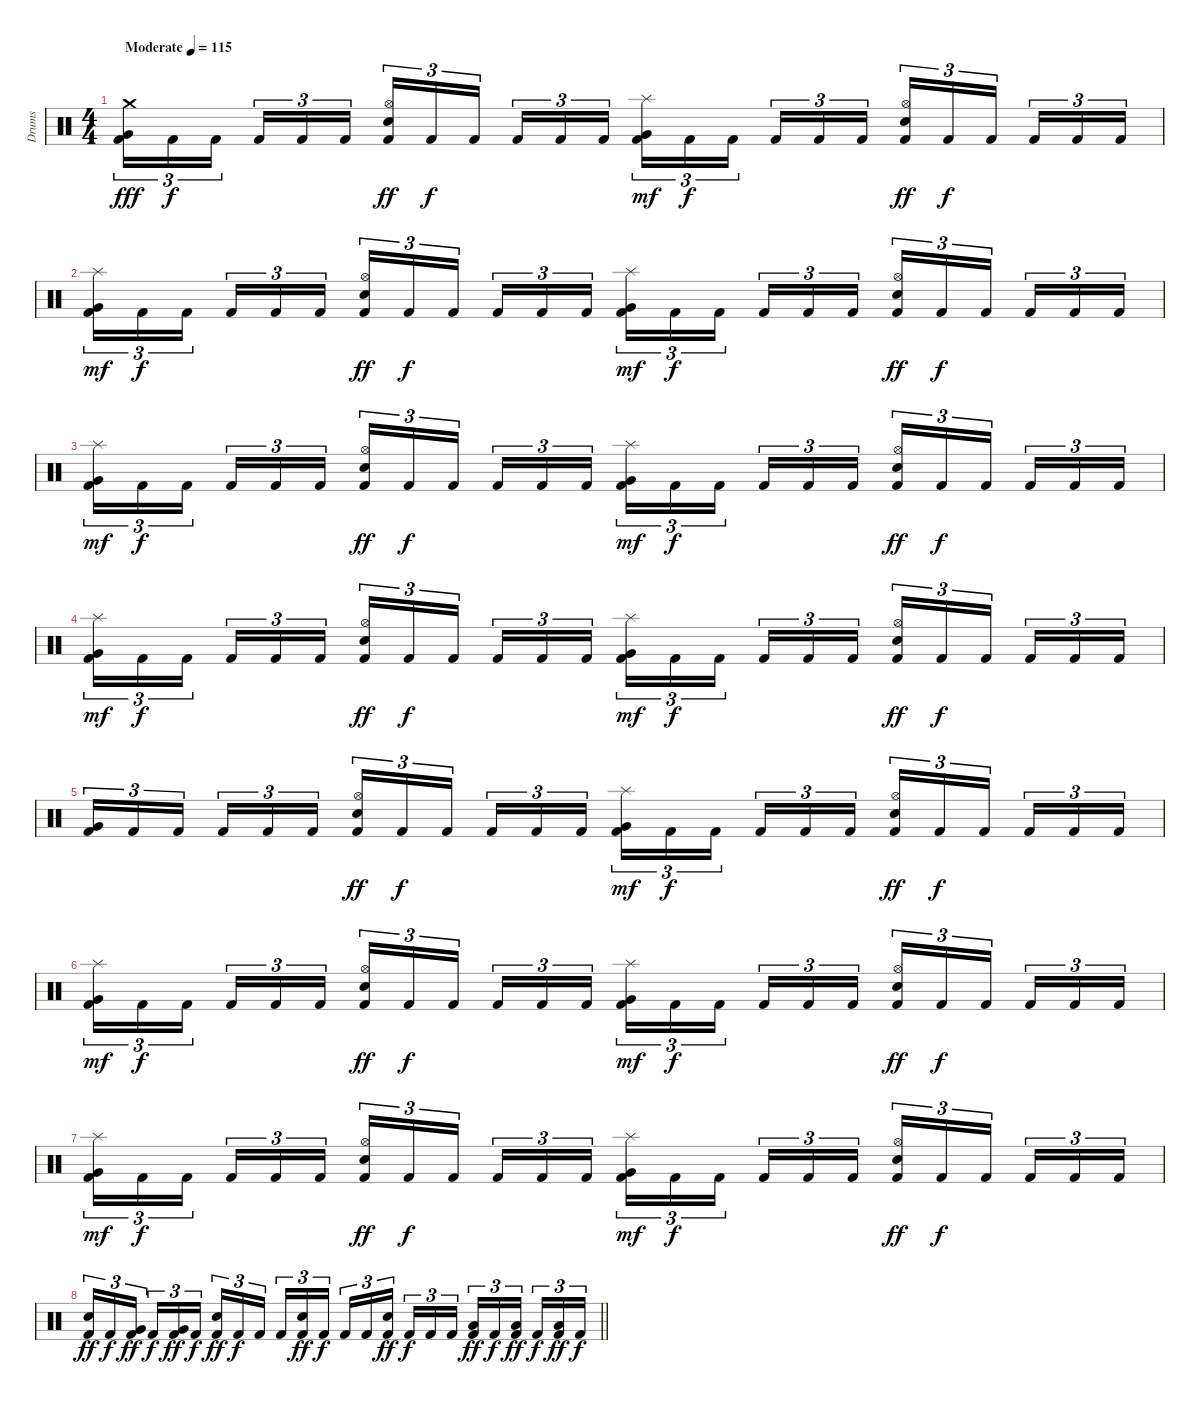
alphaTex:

\track ("Drums" "Drums") {instrument percussion}
\staff {score}
\articulation defaults
\ts (4 4)
\tempo (115 "Moderate")
\clef neutral
\ks c
("Crash medium (hit)" "Very Low Tom (hit)" "Kick (hit) 2").16{tu (3 2) dy fff} "Kick (hit) 2".16{tu (3 2) dy f} "Kick (hit) 2".16{tu (3 2) beam splitsecondary} "Kick (hit) 2".16{tu (3 2)} "Kick (hit) 2".16{tu (3 2)} "Kick (hit) 2".16{tu (3 2)} ("Hi-Hat (open)" "Snare (hit) 2" "Kick (hit) 2").16{tu (3 2) dy ff} "Kick (hit) 2".16{tu (3 2) dy f} "Kick (hit) 2".16{tu (3 2) beam splitsecondary} "Kick (hit) 2".16{tu (3 2)} "Kick (hit) 2".16{tu (3 2)} "Kick (hit) 2".16{tu (3 2)} ("Splash (hit)" "Very Low Tom (hit)" "Kick (hit) 2").16{tu (3 2) dy mf} "Kick (hit) 2".16{tu (3 2) dy f} "Kick (hit) 2".16{tu (3 2) beam splitsecondary} "Kick (hit) 2".16{tu (3 2)} "Kick (hit) 2".16{tu (3 2)} "Kick (hit) 2".16{tu (3 2)} ("Hi-Hat (open)" "Snare (hit) 2" "Kick (hit) 2").16{tu (3 2) dy ff} "Kick (hit) 2".16{tu (3 2) dy f} "Kick (hit) 2".16{tu (3 2) beam splitsecondary} "Kick (hit) 2".16{tu (3 2)} "Kick (hit) 2".16{tu (3 2)} "Kick (hit) 2".16{tu (3 2)} |
("Splash (hit)" "Very Low Tom (hit)" "Kick (hit) 2").16{tu (3 2) dy mf} "Kick (hit) 2".16{tu (3 2) dy f} "Kick (hit) 2".16{tu (3 2) beam splitsecondary} "Kick (hit) 2".16{tu (3 2)} "Kick (hit) 2".16{tu (3 2)} "Kick (hit) 2".16{tu (3 2)} ("Hi-Hat (open)" "Snare (hit) 2" "Kick (hit) 2").16{tu (3 2) dy ff} "Kick (hit) 2".16{tu (3 2) dy f} "Kick (hit) 2".16{tu (3 2) beam splitsecondary} "Kick (hit) 2".16{tu (3 2)} "Kick (hit) 2".16{tu (3 2)} "Kick (hit) 2".16{tu (3 2)} ("Splash (hit)" "Very Low Tom (hit)" "Kick (hit) 2").16{tu (3 2) dy mf} "Kick (hit) 2".16{tu (3 2) dy f} "Kick (hit) 2".16{tu (3 2) beam splitsecondary} "Kick (hit) 2".16{tu (3 2)} "Kick (hit) 2".16{tu (3 2)} "Kick (hit) 2".16{tu (3 2)} ("Hi-Hat (open)" "Snare (hit) 2" "Kick (hit) 2").16{tu (3 2) dy ff} "Kick (hit) 2".16{tu (3 2) dy f} "Kick (hit) 2".16{tu (3 2) beam splitsecondary} "Kick (hit) 2".16{tu (3 2)} "Kick (hit) 2".16{tu (3 2)} "Kick (hit) 2".16{tu (3 2)} |
("Splash (hit)" "Very Low Tom (hit)" "Kick (hit) 2").16{tu (3 2) dy mf} "Kick (hit) 2".16{tu (3 2) dy f} "Kick (hit) 2".16{tu (3 2) beam splitsecondary} "Kick (hit) 2".16{tu (3 2)} "Kick (hit) 2".16{tu (3 2)} "Kick (hit) 2".16{tu (3 2)} ("Hi-Hat (open)" "Snare (hit) 2" "Kick (hit) 2").16{tu (3 2) dy ff} "Kick (hit) 2".16{tu (3 2) dy f} "Kick (hit) 2".16{tu (3 2) beam splitsecondary} "Kick (hit) 2".16{tu (3 2)} "Kick (hit) 2".16{tu (3 2)} "Kick (hit) 2".16{tu (3 2)} ("Splash (hit)" "Very Low Tom (hit)" "Kick (hit) 2").16{tu (3 2) dy mf} "Kick (hit) 2".16{tu (3 2) dy f} "Kick (hit) 2".16{tu (3 2) beam splitsecondary} "Kick (hit) 2".16{tu (3 2)} "Kick (hit) 2".16{tu (3 2)} "Kick (hit) 2".16{tu (3 2)} ("Hi-Hat (open)" "Snare (hit) 2" "Kick (hit) 2").16{tu (3 2) dy ff} "Kick (hit) 2".16{tu (3 2) dy f} "Kick (hit) 2".16{tu (3 2) beam splitsecondary} "Kick (hit) 2".16{tu (3 2)} "Kick (hit) 2".16{tu (3 2)} "Kick (hit) 2".16{tu (3 2)} |
("Splash (hit)" "Very Low Tom (hit)" "Kick (hit) 2").16{tu (3 2) dy mf} "Kick (hit) 2".16{tu (3 2) dy f} "Kick (hit) 2".16{tu (3 2) beam splitsecondary} "Kick (hit) 2".16{tu (3 2)} "Kick (hit) 2".16{tu (3 2)} "Kick (hit) 2".16{tu (3 2)} ("Hi-Hat (open)" "Snare (hit) 2" "Kick (hit) 2").16{tu (3 2) dy ff} "Kick (hit) 2".16{tu (3 2) dy f} "Kick (hit) 2".16{tu (3 2) beam splitsecondary} "Kick (hit) 2".16{tu (3 2)} "Kick (hit) 2".16{tu (3 2)} "Kick (hit) 2".16{tu (3 2)} ("Splash (hit)" "Very Low Tom (hit)" "Kick (hit) 2").16{tu (3 2) dy mf} "Kick (hit) 2".16{tu (3 2) dy f} "Kick (hit) 2".16{tu (3 2) beam splitsecondary} "Kick (hit) 2".16{tu (3 2)} "Kick (hit) 2".16{tu (3 2)} "Kick (hit) 2".16{tu (3 2)} ("Hi-Hat (open)" "Snare (hit) 2" "Kick (hit) 2").16{tu (3 2) dy ff} "Kick (hit) 2".16{tu (3 2) dy f} "Kick (hit) 2".16{tu (3 2) beam splitsecondary} "Kick (hit) 2".16{tu (3 2)} "Kick (hit) 2".16{tu (3 2)} "Kick (hit) 2".16{tu (3 2)} |
("Very Low Tom (hit)" "Kick (hit) 2").16{tu (3 2)} "Kick (hit) 2".16{tu (3 2)} "Kick (hit) 2".16{tu (3 2) beam splitsecondary} "Kick (hit) 2".16{tu (3 2)} "Kick (hit) 2".16{tu (3 2)} "Kick (hit) 2".16{tu (3 2)} ("Hi-Hat (open)" "Snare (hit) 2" "Kick (hit) 2").16{tu (3 2) dy ff} "Kick (hit) 2".16{tu (3 2) dy f} "Kick (hit) 2".16{tu (3 2) beam splitsecondary} "Kick (hit) 2".16{tu (3 2)} "Kick (hit) 2".16{tu (3 2)} "Kick (hit) 2".16{tu (3 2)} ("Splash (hit)" "Very Low Tom (hit)" "Kick (hit) 2").16{tu (3 2) dy mf} "Kick (hit) 2".16{tu (3 2) dy f} "Kick (hit) 2".16{tu (3 2) beam splitsecondary} "Kick (hit) 2".16{tu (3 2)} "Kick (hit) 2".16{tu (3 2)} "Kick (hit) 2".16{tu (3 2)} ("Hi-Hat (open)" "Snare (hit) 2" "Kick (hit) 2").16{tu (3 2) dy ff} "Kick (hit) 2".16{tu (3 2) dy f} "Kick (hit) 2".16{tu (3 2) beam splitsecondary} "Kick (hit) 2".16{tu (3 2)} "Kick (hit) 2".16{tu (3 2)} "Kick (hit) 2".16{tu (3 2)} |
("Splash (hit)" "Very Low Tom (hit)" "Kick (hit) 2").16{tu (3 2) dy mf} "Kick (hit) 2".16{tu (3 2) dy f} "Kick (hit) 2".16{tu (3 2) beam splitsecondary} "Kick (hit) 2".16{tu (3 2)} "Kick (hit) 2".16{tu (3 2)} "Kick (hit) 2".16{tu (3 2)} ("Hi-Hat (open)" "Snare (hit) 2" "Kick (hit) 2").16{tu (3 2) dy ff} "Kick (hit) 2".16{tu (3 2) dy f} "Kick (hit) 2".16{tu (3 2) beam splitsecondary} "Kick (hit) 2".16{tu (3 2)} "Kick (hit) 2".16{tu (3 2)} "Kick (hit) 2".16{tu (3 2)} ("Splash (hit)" "Very Low Tom (hit)" "Kick (hit) 2").16{tu (3 2) dy mf} "Kick (hit) 2".16{tu (3 2) dy f} "Kick (hit) 2".16{tu (3 2) beam splitsecondary} "Kick (hit) 2".16{tu (3 2)} "Kick (hit) 2".16{tu (3 2)} "Kick (hit) 2".16{tu (3 2)} ("Hi-Hat (open)" "Snare (hit) 2" "Kick (hit) 2").16{tu (3 2) dy ff} "Kick (hit) 2".16{tu (3 2) dy f} "Kick (hit) 2".16{tu (3 2) beam splitsecondary} "Kick (hit) 2".16{tu (3 2)} "Kick (hit) 2".16{tu (3 2)} "Kick (hit) 2".16{tu (3 2)} |
("Splash (hit)" "Very Low Tom (hit)" "Kick (hit) 2").16{tu (3 2) dy mf} "Kick (hit) 2".16{tu (3 2) dy f} "Kick (hit) 2".16{tu (3 2) beam splitsecondary} "Kick (hit) 2".16{tu (3 2)} "Kick (hit) 2".16{tu (3 2)} "Kick (hit) 2".16{tu (3 2)} ("Hi-Hat (open)" "Snare (hit) 2" "Kick (hit) 2").16{tu (3 2) dy ff} "Kick (hit) 2".16{tu (3 2) dy f} "Kick (hit) 2".16{tu (3 2) beam splitsecondary} "Kick (hit) 2".16{tu (3 2)} "Kick (hit) 2".16{tu (3 2)} "Kick (hit) 2".16{tu (3 2)} ("Splash (hit)" "Very Low Tom (hit)" "Kick (hit) 2").16{tu (3 2) dy mf} "Kick (hit) 2".16{tu (3 2) dy f} "Kick (hit) 2".16{tu (3 2) beam splitsecondary} "Kick (hit) 2".16{tu (3 2)} "Kick (hit) 2".16{tu (3 2)} "Kick (hit) 2".16{tu (3 2)} ("Hi-Hat (open)" "Snare (hit) 2" "Kick (hit) 2").16{tu (3 2) dy ff} "Kick (hit) 2".16{tu (3 2) dy f} "Kick (hit) 2".16{tu (3 2) beam splitsecondary} "Kick (hit) 2".16{tu (3 2)} "Kick (hit) 2".16{tu (3 2)} "Kick (hit) 2".16{tu (3 2)} |
\barLineRight lightlight
("Snare (hit) 2" "Kick (hit) 2").16{tu (3 2) dy ff} "Kick (hit) 2".16{tu (3 2) dy f} ("Very Low Tom (hit)" "Kick (hit) 2").16{tu (3 2) dy ff beam splitsecondary} "Kick (hit) 2".16{tu (3 2) dy f} ("Very Low Tom (hit)" "Kick (hit) 2").16{tu (3 2) dy ff} "Kick (hit) 2".16{tu (3 2) dy f} ("Snare (hit) 2" "Kick (hit) 2").16{tu (3 2) dy ff} "Kick (hit) 2".16{tu (3 2) dy f} "Kick (hit) 2".16{tu (3 2) beam splitsecondary} "Kick (hit) 2".16{tu (3 2)} ("Snare (hit) 2" "Kick (hit) 2").16{tu (3 2) dy ff} "Kick (hit) 2".16{tu (3 2) dy f} "Kick (hit) 2".16{tu (3 2)} "Kick (hit) 2".16{tu (3 2)} ("Snare (hit) 2" "Kick (hit) 2").16{tu (3 2) dy ff beam splitsecondary} "Kick (hit) 2".16{tu (3 2) dy f} "Kick (hit) 2".16{tu (3 2)} "Kick (hit) 2".16{tu (3 2)} ("Low Floor Tom (hit)" "Kick (hit) 2").16{tu (3 2) dy ff} "Kick (hit) 2".16{tu (3 2) dy f} ("Low Floor Tom (hit)" "Kick (hit) 2").16{tu (3 2) dy ff beam splitsecondary} "Kick (hit) 2".16{tu (3 2) dy f} ("Low Floor Tom (hit)" "Kick (hit) 2").16{tu (3 2) dy ff} "Kick (hit) 2".16{tu (3 2) dy f}
